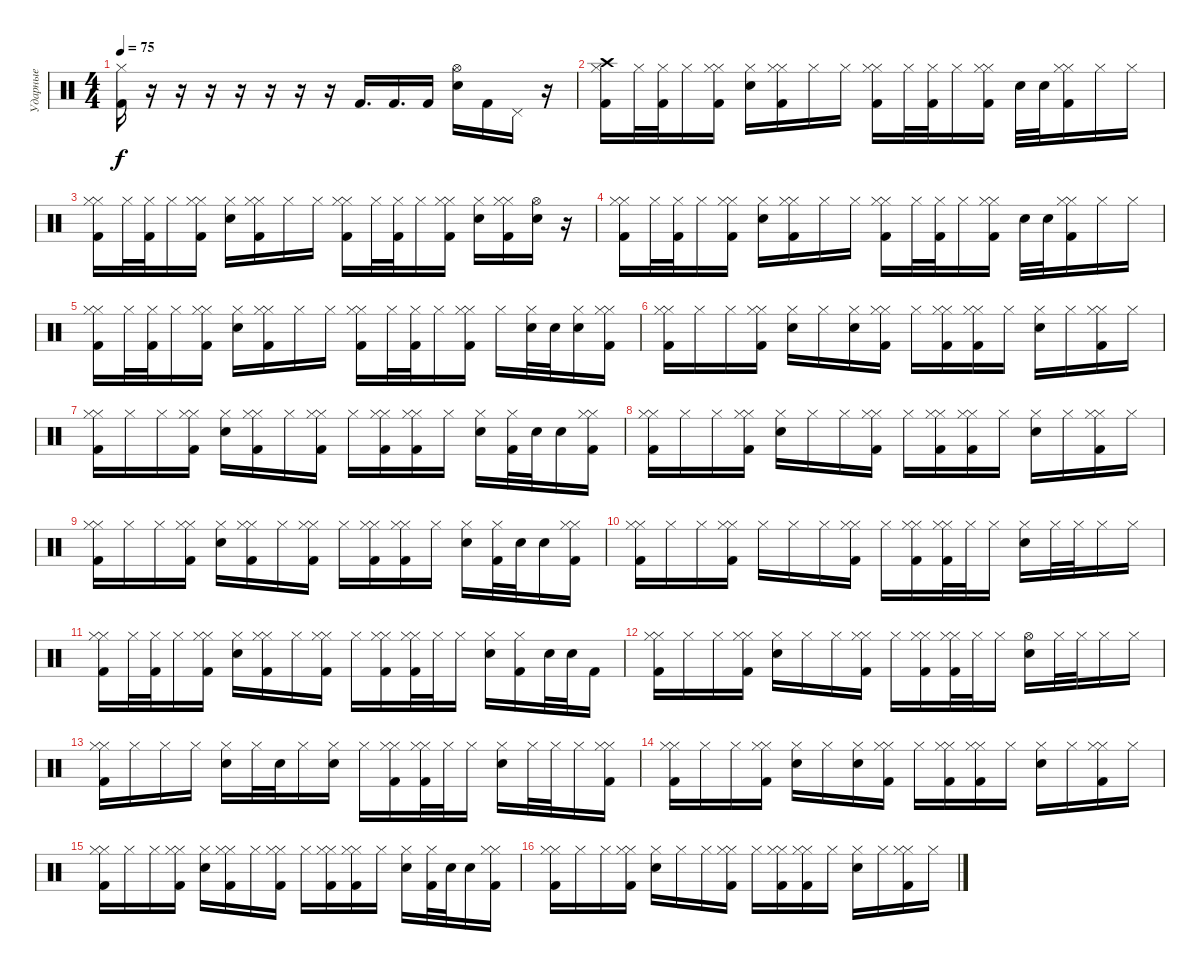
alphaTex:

\track ("Ударные" "Ударные") {instrument percussion}
\staff {score}
\articulation defaults
\ts (4 4)
\tempo 75
\clef neutral
\ks c
("Hi-Hat (closed)" "Kick (hit) 2").16{dy f} r.16 r.16 r.16 r.16 r.16 r.16 r.16 "Kick (hit) 2".16{d} "Kick (hit) 2".16{d} "Kick (hit) 2".16 ("Hi-Hat (open)" "Electric Snare (hit)").16 "Kick (hit) 2".16 "Pedal Hi-Hat (hit)".16 r.16 |
("Crash high (hit)" "Hi-Hat (closed)" "Kick (hit) 2").16 "Hi-Hat (closed)".32 ("Hi-Hat (closed)" "Kick (hit) 2").32 "Hi-Hat (closed)".16 ("Hi-Hat (closed)" "Hi-Hat (closed)" "Kick (hit) 2").16 ("Hi-Hat (closed)" "Electric Snare (hit)").16 ("Hi-Hat (closed)" "Hi-Hat (closed)" "Kick (hit) 2").16 "Hi-Hat (closed)".16 "Hi-Hat (closed)".16 ("Hi-Hat (closed)" "Hi-Hat (closed)" "Kick (hit) 2").16 "Hi-Hat (closed)".32 ("Hi-Hat (closed)" "Kick (hit) 2").32 "Hi-Hat (closed)".16 ("Hi-Hat (closed)" "Hi-Hat (closed)" "Kick (hit) 2").16 "Electric Snare (hit)".32 "Electric Snare (hit)".32 ("Hi-Hat (closed)" "Hi-Hat (closed)" "Kick (hit) 2").16 "Hi-Hat (closed)".16 "Hi-Hat (closed)".16 |
("Hi-Hat (closed)" "Hi-Hat (closed)" "Kick (hit) 2").16 "Hi-Hat (closed)".32 ("Hi-Hat (closed)" "Kick (hit) 2").32 "Hi-Hat (closed)".16 ("Hi-Hat (closed)" "Hi-Hat (closed)" "Kick (hit) 2").16 ("Hi-Hat (closed)" "Electric Snare (hit)").16 ("Hi-Hat (closed)" "Hi-Hat (closed)" "Kick (hit) 2").16 "Hi-Hat (closed)".16 "Hi-Hat (closed)".16 ("Hi-Hat (closed)" "Hi-Hat (closed)" "Kick (hit) 2").16 "Hi-Hat (closed)".32 ("Hi-Hat (closed)" "Kick (hit) 2").32 "Hi-Hat (closed)".16 ("Hi-Hat (closed)" "Hi-Hat (closed)" "Kick (hit) 2").16 ("Hi-Hat (closed)" "Electric Snare (hit)").16 ("Hi-Hat (closed)" "Hi-Hat (closed)" "Kick (hit) 2").16 ("Hi-Hat (open)" "Electric Snare (hit)").16 r.16 |
("Hi-Hat (closed)" "Hi-Hat (closed)" "Kick (hit) 2").16 "Hi-Hat (closed)".32 ("Hi-Hat (closed)" "Kick (hit) 2").32 "Hi-Hat (closed)".16 ("Hi-Hat (closed)" "Hi-Hat (closed)" "Kick (hit) 2").16 ("Hi-Hat (closed)" "Electric Snare (hit)").16 ("Hi-Hat (closed)" "Hi-Hat (closed)" "Kick (hit) 2").16 "Hi-Hat (closed)".16 "Hi-Hat (closed)".16 ("Hi-Hat (closed)" "Hi-Hat (closed)" "Kick (hit) 2").16 "Hi-Hat (closed)".32 ("Hi-Hat (closed)" "Kick (hit) 2").32 "Hi-Hat (closed)".16 ("Hi-Hat (closed)" "Hi-Hat (closed)" "Kick (hit) 2").16 "Electric Snare (hit)".32 "Electric Snare (hit)".32 ("Hi-Hat (closed)" "Hi-Hat (closed)" "Kick (hit) 2").16 "Hi-Hat (closed)".16 "Hi-Hat (closed)".16 |
("Hi-Hat (closed)" "Hi-Hat (closed)" "Kick (hit) 2").16 "Hi-Hat (closed)".32 ("Hi-Hat (closed)" "Kick (hit) 2").32 "Hi-Hat (closed)".16 ("Hi-Hat (closed)" "Hi-Hat (closed)" "Kick (hit) 2").16 ("Hi-Hat (closed)" "Electric Snare (hit)").16 ("Hi-Hat (closed)" "Hi-Hat (closed)" "Kick (hit) 2").16 "Hi-Hat (closed)".16 "Hi-Hat (closed)".16 ("Hi-Hat (closed)" "Hi-Hat (closed)" "Kick (hit) 2").16 "Hi-Hat (closed)".32 ("Hi-Hat (closed)" "Kick (hit) 2").32 "Hi-Hat (closed)".16 ("Hi-Hat (closed)" "Hi-Hat (closed)" "Kick (hit) 2").16 "Hi-Hat (closed)".16 ("Hi-Hat (closed)" "Electric Snare (hit)").32 "Electric Snare (hit)".32 ("Hi-Hat (closed)" "Electric Snare (hit)").16 ("Hi-Hat (closed)" "Hi-Hat (closed)" "Kick (hit) 2").16 |
("Hi-Hat (closed)" "Hi-Hat (closed)" "Kick (hit) 2").16 "Hi-Hat (closed)".16 "Hi-Hat (closed)".16 ("Hi-Hat (closed)" "Hi-Hat (closed)" "Kick (hit) 2").16 ("Hi-Hat (closed)" "Electric Snare (hit)").16 "Hi-Hat (closed)".16 ("Hi-Hat (closed)" "Electric Snare (hit)").16 ("Hi-Hat (closed)" "Hi-Hat (closed)" "Kick (hit) 2").16 "Hi-Hat (closed)".16 ("Hi-Hat (closed)" "Hi-Hat (closed)" "Kick (hit) 2").16 ("Hi-Hat (closed)" "Hi-Hat (closed)" "Kick (hit) 2").16 "Hi-Hat (closed)".16 ("Hi-Hat (closed)" "Electric Snare (hit)").16 "Hi-Hat (closed)".16 ("Hi-Hat (closed)" "Hi-Hat (closed)" "Kick (hit) 2").16 "Hi-Hat (closed)".16 |
("Hi-Hat (closed)" "Hi-Hat (closed)" "Kick (hit) 2").16 "Hi-Hat (closed)".16 "Hi-Hat (closed)".16 ("Hi-Hat (closed)" "Hi-Hat (closed)" "Kick (hit) 2").16 ("Hi-Hat (closed)" "Electric Snare (hit)").16 ("Hi-Hat (closed)" "Hi-Hat (closed)" "Kick (hit) 2").16 "Hi-Hat (closed)".16 ("Hi-Hat (closed)" "Hi-Hat (closed)" "Kick (hit) 2").16 "Hi-Hat (closed)".16 ("Hi-Hat (closed)" "Hi-Hat (closed)" "Kick (hit) 2").16 ("Hi-Hat (closed)" "Hi-Hat (closed)" "Kick (hit) 2").16 "Hi-Hat (closed)".16 ("Hi-Hat (closed)" "Electric Snare (hit)").16 ("Hi-Hat (closed)" "Kick (hit) 2").32 "Electric Snare (hit)".32 "Electric Snare (hit)".16 ("Hi-Hat (closed)" "Hi-Hat (closed)" "Kick (hit) 2").16 |
("Hi-Hat (closed)" "Hi-Hat (closed)" "Kick (hit) 2").16 "Hi-Hat (closed)".16 "Hi-Hat (closed)".16 ("Hi-Hat (closed)" "Hi-Hat (closed)" "Kick (hit) 2").16 ("Hi-Hat (closed)" "Electric Snare (hit)").16 "Hi-Hat (closed)".16 "Hi-Hat (closed)".16 ("Hi-Hat (closed)" "Hi-Hat (closed)" "Kick (hit) 2").16 "Hi-Hat (closed)".16 ("Hi-Hat (closed)" "Hi-Hat (closed)" "Kick (hit) 2").16 ("Hi-Hat (closed)" "Hi-Hat (closed)" "Kick (hit) 2").16 "Hi-Hat (closed)".16 ("Hi-Hat (closed)" "Electric Snare (hit)").16 "Hi-Hat (closed)".16 ("Hi-Hat (closed)" "Hi-Hat (closed)" "Kick (hit) 2").16 "Hi-Hat (closed)".16 |
("Hi-Hat (closed)" "Hi-Hat (closed)" "Kick (hit) 2").16 "Hi-Hat (closed)".16 "Hi-Hat (closed)".16 ("Hi-Hat (closed)" "Hi-Hat (closed)" "Kick (hit) 2").16 ("Hi-Hat (closed)" "Electric Snare (hit)").16 ("Hi-Hat (closed)" "Hi-Hat (closed)" "Kick (hit) 2").16 "Hi-Hat (closed)".16 ("Hi-Hat (closed)" "Hi-Hat (closed)" "Kick (hit) 2").16 "Hi-Hat (closed)".16 ("Hi-Hat (closed)" "Hi-Hat (closed)" "Kick (hit) 2").16 ("Hi-Hat (closed)" "Hi-Hat (closed)" "Kick (hit) 2").16 "Hi-Hat (closed)".16 ("Hi-Hat (closed)" "Electric Snare (hit)").16 ("Hi-Hat (closed)" "Kick (hit) 2").32 "Electric Snare (hit)".32 "Electric Snare (hit)".16 ("Hi-Hat (closed)" "Hi-Hat (closed)" "Kick (hit) 2").16 |
("Hi-Hat (closed)" "Hi-Hat (closed)" "Kick (hit) 2").16 "Hi-Hat (closed)".16 "Hi-Hat (closed)".16 ("Hi-Hat (closed)" "Hi-Hat (closed)" "Kick (hit) 2").16 "Hi-Hat (closed)".16 "Hi-Hat (closed)".16 "Hi-Hat (closed)".16 ("Hi-Hat (closed)" "Hi-Hat (closed)" "Kick (hit) 2").16 "Hi-Hat (closed)".16 ("Hi-Hat (closed)" "Hi-Hat (closed)" "Kick (hit) 2").16 ("Hi-Hat (closed)" "Hi-Hat (closed)" "Kick (hit) 2").32 "Hi-Hat (closed)".32 "Hi-Hat (closed)".16 ("Hi-Hat (closed)" "Electric Snare (hit)").16 "Hi-Hat (closed)".32 "Hi-Hat (closed)".32 "Hi-Hat (closed)".16 "Hi-Hat (closed)".16 |
("Hi-Hat (closed)" "Hi-Hat (closed)" "Kick (hit) 2").16 "Hi-Hat (closed)".32 ("Hi-Hat (closed)" "Kick (hit) 2").32 "Hi-Hat (closed)".16 ("Hi-Hat (closed)" "Hi-Hat (closed)" "Kick (hit) 2").16 ("Hi-Hat (closed)" "Electric Snare (hit)").16 ("Hi-Hat (closed)" "Hi-Hat (closed)" "Kick (hit) 2").16 "Hi-Hat (closed)".16 ("Hi-Hat (closed)" "Hi-Hat (closed)" "Kick (hit) 2").16 "Hi-Hat (closed)".16 ("Hi-Hat (closed)" "Hi-Hat (closed)" "Kick (hit) 2").16 ("Hi-Hat (closed)" "Hi-Hat (closed)" "Kick (hit) 2").32 "Hi-Hat (closed)".32 "Hi-Hat (closed)".16 ("Hi-Hat (closed)" "Electric Snare (hit)").16 ("Hi-Hat (closed)" "Kick (hit) 2").16 "Electric Snare (hit)".32 "Electric Snare (hit)".32 "Kick (hit) 2".16 |
("Hi-Hat (closed)" "Hi-Hat (closed)" "Kick (hit) 2").16 "Hi-Hat (closed)".16 "Hi-Hat (closed)".16 ("Hi-Hat (closed)" "Hi-Hat (closed)" "Kick (hit) 2").16 ("Hi-Hat (closed)" "Electric Snare (hit)").16 "Hi-Hat (closed)".16 "Hi-Hat (closed)".16 ("Hi-Hat (closed)" "Hi-Hat (closed)" "Kick (hit) 2").16 "Hi-Hat (closed)".16 ("Hi-Hat (closed)" "Hi-Hat (closed)" "Kick (hit) 2").16 ("Hi-Hat (closed)" "Hi-Hat (closed)" "Kick (hit) 2").32 "Hi-Hat (closed)".32 "Hi-Hat (closed)".16 ("Hi-Hat (open)" "Electric Snare (hit)").16 "Hi-Hat (closed)".32 "Hi-Hat (closed)".32 "Hi-Hat (closed)".16 "Hi-Hat (closed)".16 |
("Hi-Hat (closed)" "Hi-Hat (closed)" "Kick (hit) 2").16 "Hi-Hat (closed)".16 "Hi-Hat (closed)".16 "Hi-Hat (closed)".16 ("Hi-Hat (closed)" "Electric Snare (hit)").16 "Hi-Hat (closed)".32 "Electric Snare (hit)".32 "Hi-Hat (closed)".16 ("Hi-Hat (closed)" "Electric Snare (hit)").16 "Hi-Hat (closed)".16 ("Hi-Hat (closed)" "Hi-Hat (closed)" "Kick (hit) 2").16 ("Hi-Hat (closed)" "Hi-Hat (closed)" "Kick (hit) 2").32 "Hi-Hat (closed)".32 "Hi-Hat (closed)".16 ("Hi-Hat (closed)" "Electric Snare (hit)").16 "Hi-Hat (closed)".32 "Hi-Hat (closed)".32 "Hi-Hat (closed)".16 ("Hi-Hat (closed)" "Hi-Hat (closed)" "Kick (hit) 2").16 |
("Hi-Hat (closed)" "Hi-Hat (closed)" "Kick (hit) 2").16 "Hi-Hat (closed)".16 "Hi-Hat (closed)".16 ("Hi-Hat (closed)" "Hi-Hat (closed)" "Kick (hit) 2").16 ("Hi-Hat (closed)" "Electric Snare (hit)").16 "Hi-Hat (closed)".16 ("Hi-Hat (closed)" "Electric Snare (hit)").16 ("Hi-Hat (closed)" "Hi-Hat (closed)" "Kick (hit) 2").16 "Hi-Hat (closed)".16 ("Hi-Hat (closed)" "Hi-Hat (closed)" "Kick (hit) 2").16 ("Hi-Hat (closed)" "Hi-Hat (closed)" "Kick (hit) 2").16 "Hi-Hat (closed)".16 ("Hi-Hat (closed)" "Electric Snare (hit)").16 "Hi-Hat (closed)".16 ("Hi-Hat (closed)" "Hi-Hat (closed)" "Kick (hit) 2").16 "Hi-Hat (closed)".16 |
("Hi-Hat (closed)" "Hi-Hat (closed)" "Kick (hit) 2").16 "Hi-Hat (closed)".16 "Hi-Hat (closed)".16 ("Hi-Hat (closed)" "Hi-Hat (closed)" "Kick (hit) 2").16 ("Hi-Hat (closed)" "Electric Snare (hit)").16 ("Hi-Hat (closed)" "Hi-Hat (closed)" "Kick (hit) 2").16 "Hi-Hat (closed)".16 ("Hi-Hat (closed)" "Hi-Hat (closed)" "Kick (hit) 2").16 "Hi-Hat (closed)".16 ("Hi-Hat (closed)" "Hi-Hat (closed)" "Kick (hit) 2").16 ("Hi-Hat (closed)" "Hi-Hat (closed)" "Kick (hit) 2").16 "Hi-Hat (closed)".16 ("Hi-Hat (closed)" "Electric Snare (hit)").16 ("Hi-Hat (closed)" "Kick (hit) 2").32 "Electric Snare (hit)".32 "Electric Snare (hit)".16 ("Hi-Hat (closed)" "Hi-Hat (closed)" "Kick (hit) 2").16 |
("Hi-Hat (closed)" "Hi-Hat (closed)" "Kick (hit) 2").16 "Hi-Hat (closed)".16 "Hi-Hat (closed)".16 ("Hi-Hat (closed)" "Hi-Hat (closed)" "Kick (hit) 2").16 ("Hi-Hat (closed)" "Electric Snare (hit)").16 "Hi-Hat (closed)".16 "Hi-Hat (closed)".16 ("Hi-Hat (closed)" "Hi-Hat (closed)" "Kick (hit) 2").16 "Hi-Hat (closed)".16 ("Hi-Hat (closed)" "Hi-Hat (closed)" "Kick (hit) 2").16 ("Hi-Hat (closed)" "Hi-Hat (closed)" "Kick (hit) 2").16 "Hi-Hat (closed)".16 ("Hi-Hat (closed)" "Electric Snare (hit)").16 "Hi-Hat (closed)".16 ("Hi-Hat (closed)" "Hi-Hat (closed)" "Kick (hit) 2").16 "Hi-Hat (closed)".16
